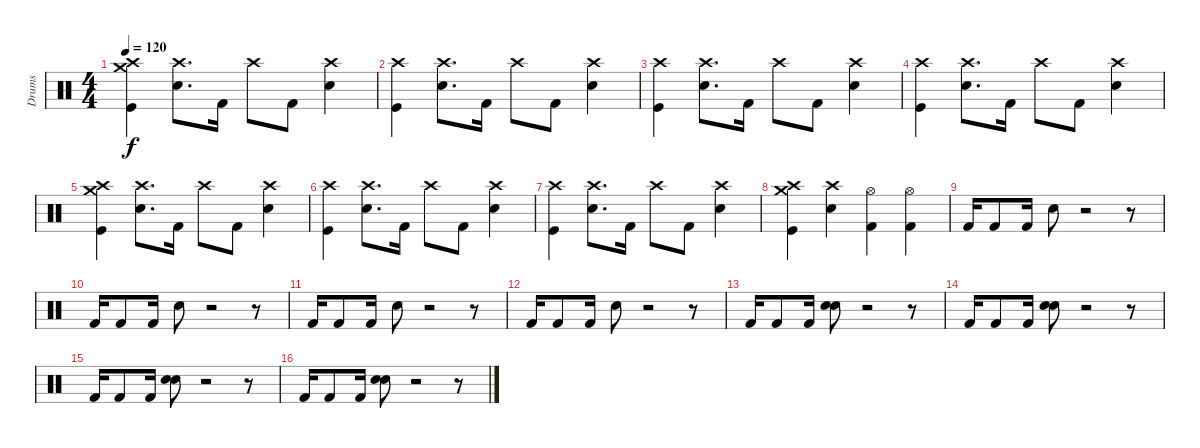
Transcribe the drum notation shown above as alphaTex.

\track ("Drums" "Drums") {instrument percussion}
\staff {score}
\articulation defaults
\ts (4 4)
\tempo 120
\clef neutral
\ks c
("Crash high (hit)" "Crash medium (hit)" "Kick (hit)").4{dy f} ("Crash high (hit)" "Snare (hit) 2").8{d} "Kick (hit) 2".16 "Crash high (hit)".8 "Kick (hit) 2".8 ("Crash high (hit)" "Snare (hit) 2").4 |
("Crash high (hit)" "Kick (hit)").4 ("Crash high (hit)" "Snare (hit) 2").8{d} "Kick (hit) 2".16 "Crash high (hit)".8 "Kick (hit) 2".8 ("Crash high (hit)" "Snare (hit) 2").4 |
("Crash high (hit)" "Kick (hit)").4 ("Crash high (hit)" "Snare (hit) 2").8{d} "Kick (hit) 2".16 "Crash high (hit)".8 "Kick (hit) 2".8 ("Crash high (hit)" "Snare (hit) 2").4 |
("Crash high (hit)" "Kick (hit)").4 ("Crash high (hit)" "Snare (hit) 2").8{d} "Kick (hit) 2".16 "Crash high (hit)".8 "Kick (hit) 2".8 ("Crash high (hit)" "Snare (hit) 2").4 |
("Crash high (hit)" "Crash medium (hit)" "Kick (hit)").4 ("Crash high (hit)" "Snare (hit) 2").8{d} "Kick (hit) 2".16 "Crash high (hit)".8 "Kick (hit) 2".8 ("Crash high (hit)" "Snare (hit) 2").4 |
("Crash high (hit)" "Kick (hit)").4 ("Crash high (hit)" "Snare (hit) 2").8{d} "Kick (hit) 2".16 "Crash high (hit)".8 "Kick (hit) 2".8 ("Crash high (hit)" "Snare (hit) 2").4 |
("Crash high (hit)" "Kick (hit)").4 ("Crash high (hit)" "Snare (hit) 2").8{d} "Kick (hit) 2".16 "Crash high (hit)".8 "Kick (hit) 2".8 ("Crash high (hit)" "Snare (hit) 2").4 |
("Crash high (hit)" "Crash medium (hit)" "Kick (hit)").4 ("Crash high (hit)" "Snare (hit) 2").4 ("Hi-Hat (open)" "Kick (hit) 2").4 ("Hi-Hat (open)" "Kick (hit) 2").4 |
"Kick (hit) 2".16 "Kick (hit) 2".8 "Kick (hit) 2".16 "Hand Clap (hit)".8 r.2 r.8 |
"Kick (hit) 2".16 "Kick (hit) 2".8 "Kick (hit) 2".16 "Hand Clap (hit)".8 r.2 r.8 |
"Kick (hit) 2".16 "Kick (hit) 2".8 "Kick (hit) 2".16 "Hand Clap (hit)".8 r.2 r.8 |
"Kick (hit) 2".16 "Kick (hit) 2".8 "Kick (hit) 2".16 "Hand Clap (hit)".8 r.2 r.8 |
"Kick (hit) 2".16 "Kick (hit) 2".8 "Kick (hit) 2".16 ("Snare (hit) 2" "Hand Clap (hit)").8 r.2 r.8 |
"Kick (hit) 2".16 "Kick (hit) 2".8 "Kick (hit) 2".16 ("Snare (hit) 2" "Hand Clap (hit)").8 r.2 r.8 |
"Kick (hit) 2".16 "Kick (hit) 2".8 "Kick (hit) 2".16 ("Snare (hit) 2" "Hand Clap (hit)").8 r.2 r.8 |
"Kick (hit) 2".16 "Kick (hit) 2".8 "Kick (hit) 2".16 ("Snare (hit) 2" "Hand Clap (hit)").8 r.2 r.8
